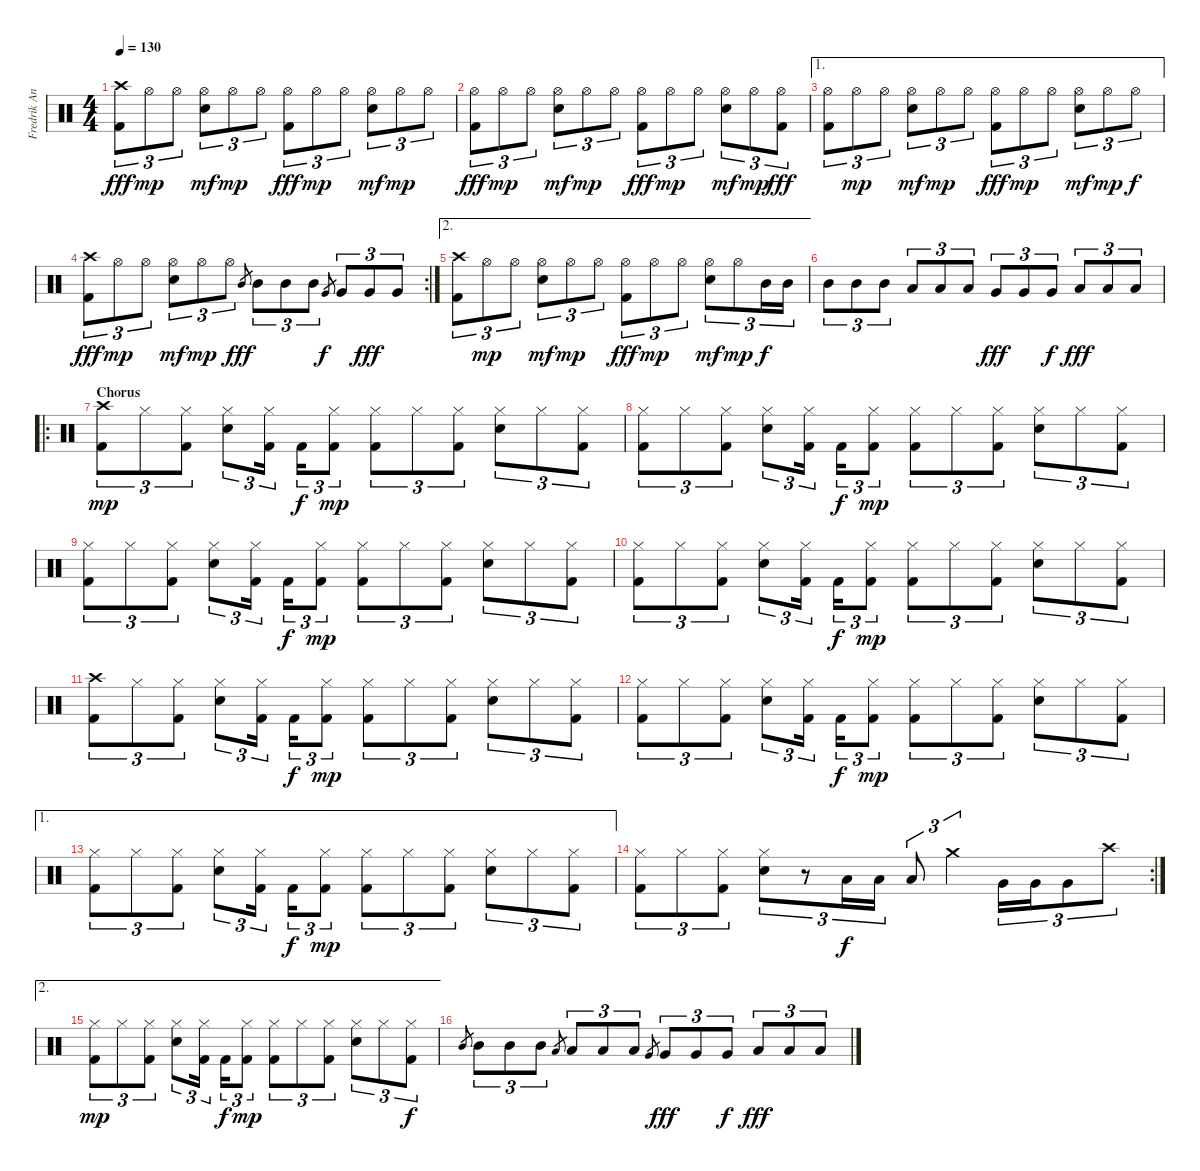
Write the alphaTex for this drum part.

\track ("Fredrik Andersson" "Fredrik An") {instrument percussion}
\staff {score}
\articulation defaults
\ts (4 4)
\tempo 130
\clef neutral
\ks c
("Crash high (hit)" "Kick (hit) 2").8{tu (3 2) dy fff} "Hi-Hat (open)".8{tu (3 2) dy mp} "Hi-Hat (open)".8{tu (3 2)} ("Hi-Hat (open)" "Snare (hit) 2").8{tu (3 2) dy mf} "Hi-Hat (open)".8{tu (3 2) dy mp} "Hi-Hat (open)".8{tu (3 2)} ("Hi-Hat (open)" "Kick (hit) 2").8{tu (3 2) dy fff} "Hi-Hat (open)".8{tu (3 2) dy mp} "Hi-Hat (open)".8{tu (3 2)} ("Hi-Hat (open)" "Snare (hit) 2").8{tu (3 2) dy mf} "Hi-Hat (open)".8{tu (3 2) dy mp} "Hi-Hat (open)".8{tu (3 2)} |
("Hi-Hat (open)" "Kick (hit) 2").8{tu (3 2) dy fff} "Hi-Hat (open)".8{tu (3 2) dy mp} "Hi-Hat (open)".8{tu (3 2)} ("Hi-Hat (open)" "Snare (hit) 2").8{tu (3 2) dy mf} "Hi-Hat (open)".8{tu (3 2) dy mp} "Hi-Hat (open)".8{tu (3 2)} ("Hi-Hat (open)" "Kick (hit) 2").8{tu (3 2) dy fff} "Hi-Hat (open)".8{tu (3 2) dy mp} "Hi-Hat (open)".8{tu (3 2)} ("Hi-Hat (open)" "Snare (hit) 2").8{tu (3 2) dy mf} "Hi-Hat (open)".8{tu (3 2) dy mp} ("Hi-Hat (open)" "Kick (hit) 2").8{tu (3 2) dy fff} |
\ae 1
("Hi-Hat (open)" "Kick (hit) 2").8{tu (3 2)} "Hi-Hat (open)".8{tu (3 2) dy mp} "Hi-Hat (open)".8{tu (3 2)} ("Hi-Hat (open)" "Snare (hit) 2").8{tu (3 2) dy mf} "Hi-Hat (open)".8{tu (3 2) dy mp} "Hi-Hat (open)".8{tu (3 2)} ("Hi-Hat (open)" "Kick (hit) 2").8{tu (3 2) dy fff} "Hi-Hat (open)".8{tu (3 2) dy mp} "Hi-Hat (open)".8{tu (3 2)} ("Hi-Hat (open)" "Snare (hit) 2").8{tu (3 2) dy mf} "Hi-Hat (open)".8{tu (3 2) dy mp} "Hi-Hat (open)".8{tu (3 2) dy f} |
\rc 2
("Crash high (hit)" "Kick (hit) 2").8{tu (3 2) dy fff} "Hi-Hat (open)".8{tu (3 2) dy mp} "Hi-Hat (open)".8{tu (3 2)} ("Hi-Hat (open)" "Snare (hit) 2").8{tu (3 2) dy mf} "Hi-Hat (open)".8{tu (3 2) dy mp} "Hi-Hat (open)".8{tu (3 2)} "Mid Tom (hit)".8{gr dy fff} "Mid Tom (hit)".8{tu (3 2)} "Mid Tom (hit)".8{tu (3 2)} "Mid Tom (hit)".8{tu (3 2)} "Very Low Tom (hit)".8{gr dy f} "Very Low Tom (hit)".8{tu (3 2)} "Very Low Tom (hit)".8{tu (3 2) dy fff} "Very Low Tom (hit)".8{tu (3 2)} |
\ae 2
("Crash high (hit)" "Kick (hit) 2").8{tu (3 2)} "Hi-Hat (open)".8{tu (3 2) dy mp} "Hi-Hat (open)".8{tu (3 2)} ("Hi-Hat (open)" "Snare (hit) 2").8{tu (3 2) dy mf} "Hi-Hat (open)".8{tu (3 2) dy mp} "Hi-Hat (open)".8{tu (3 2)} ("Hi-Hat (open)" "Kick (hit) 2").8{tu (3 2) dy fff} "Hi-Hat (open)".8{tu (3 2) dy mp} "Hi-Hat (open)".8{tu (3 2)} ("Hi-Hat (open)" "Snare (hit) 2").8{tu (3 2) dy mf} "Hi-Hat (open)".8{tu (3 2) dy mp} "Mid Tom (hit)".16{tu (3 2) dy f} "Mid Tom (hit)".16{tu (3 2)} |
"Mid Tom (hit)".8{tu (3 2)} "Mid Tom (hit)".8{tu (3 2)} "Mid Tom (hit)".8{tu (3 2)} "Low Tom (hit)".8{tu (3 2)} "Low Tom (hit)".8{tu (3 2)} "Low Tom (hit)".8{tu (3 2)} "Very Low Tom (hit)".8{tu (3 2) dy fff} "Very Low Tom (hit)".8{tu (3 2)} "Very Low Tom (hit)".8{tu (3 2) dy f} "Low Floor Tom (hit)".8{tu (3 2) dy fff} "Low Floor Tom (hit)".8{tu (3 2)} "Low Floor Tom (hit)".8{tu (3 2)} |
\ro
\section ("" "Chorus")
("Crash high (hit)" "Kick (hit) 2").8{tu (3 2) dy mp} "Hi-Hat (closed)".8{tu (3 2)} ("Hi-Hat (closed)" "Kick (hit) 2").8{tu (3 2)} ("Hi-Hat (closed)" "Snare (hit) 2").8{tu (3 2)} ("Hi-Hat (closed)" "Kick (hit) 2").16{tu (3 2)} "Kick (hit) 2".16{tu (3 2) dy f} ("Hi-Hat (closed)" "Kick (hit) 2").8{tu (3 2) dy mp} ("Hi-Hat (closed)" "Kick (hit) 2").8{tu (3 2)} "Hi-Hat (closed)".8{tu (3 2)} ("Hi-Hat (closed)" "Kick (hit) 2").8{tu (3 2)} ("Hi-Hat (closed)" "Snare (hit) 2").8{tu (3 2)} "Hi-Hat (closed)".8{tu (3 2)} ("Hi-Hat (closed)" "Kick (hit) 2").8{tu (3 2)} |
("Hi-Hat (closed)" "Kick (hit) 2").8{tu (3 2)} "Hi-Hat (closed)".8{tu (3 2)} ("Hi-Hat (closed)" "Kick (hit) 2").8{tu (3 2)} ("Hi-Hat (closed)" "Snare (hit) 2").8{tu (3 2)} ("Hi-Hat (closed)" "Kick (hit) 2").16{tu (3 2)} "Kick (hit) 2".16{tu (3 2) dy f} ("Hi-Hat (closed)" "Kick (hit) 2").8{tu (3 2) dy mp} ("Hi-Hat (closed)" "Kick (hit) 2").8{tu (3 2)} "Hi-Hat (closed)".8{tu (3 2)} ("Hi-Hat (closed)" "Kick (hit) 2").8{tu (3 2)} ("Hi-Hat (closed)" "Snare (hit) 2").8{tu (3 2)} "Hi-Hat (closed)".8{tu (3 2)} ("Hi-Hat (closed)" "Kick (hit) 2").8{tu (3 2)} |
("Hi-Hat (closed)" "Kick (hit) 2").8{tu (3 2)} "Hi-Hat (closed)".8{tu (3 2)} ("Hi-Hat (closed)" "Kick (hit) 2").8{tu (3 2)} ("Hi-Hat (closed)" "Snare (hit) 2").8{tu (3 2)} ("Hi-Hat (closed)" "Kick (hit) 2").16{tu (3 2)} "Kick (hit) 2".16{tu (3 2) dy f} ("Hi-Hat (closed)" "Kick (hit) 2").8{tu (3 2) dy mp} ("Hi-Hat (closed)" "Kick (hit) 2").8{tu (3 2)} "Hi-Hat (closed)".8{tu (3 2)} ("Hi-Hat (closed)" "Kick (hit) 2").8{tu (3 2)} ("Hi-Hat (closed)" "Snare (hit) 2").8{tu (3 2)} "Hi-Hat (closed)".8{tu (3 2)} ("Hi-Hat (closed)" "Kick (hit) 2").8{tu (3 2)} |
("Hi-Hat (closed)" "Kick (hit) 2").8{tu (3 2)} "Hi-Hat (closed)".8{tu (3 2)} ("Hi-Hat (closed)" "Kick (hit) 2").8{tu (3 2)} ("Hi-Hat (closed)" "Snare (hit) 2").8{tu (3 2)} ("Hi-Hat (closed)" "Kick (hit) 2").16{tu (3 2)} "Kick (hit) 2".16{tu (3 2) dy f} ("Hi-Hat (closed)" "Kick (hit) 2").8{tu (3 2) dy mp} ("Hi-Hat (closed)" "Kick (hit) 2").8{tu (3 2)} "Hi-Hat (closed)".8{tu (3 2)} ("Hi-Hat (closed)" "Kick (hit) 2").8{tu (3 2)} ("Hi-Hat (closed)" "Snare (hit) 2").8{tu (3 2)} "Hi-Hat (closed)".8{tu (3 2)} ("Hi-Hat (closed)" "Kick (hit) 2").8{tu (3 2)} |
("Crash high (hit)" "Kick (hit) 2").8{tu (3 2)} "Hi-Hat (closed)".8{tu (3 2)} ("Hi-Hat (closed)" "Kick (hit) 2").8{tu (3 2)} ("Hi-Hat (closed)" "Snare (hit) 2").8{tu (3 2)} ("Hi-Hat (closed)" "Kick (hit) 2").16{tu (3 2)} "Kick (hit) 2".16{tu (3 2) dy f} ("Hi-Hat (closed)" "Kick (hit) 2").8{tu (3 2) dy mp} ("Hi-Hat (closed)" "Kick (hit) 2").8{tu (3 2)} "Hi-Hat (closed)".8{tu (3 2)} ("Hi-Hat (closed)" "Kick (hit) 2").8{tu (3 2)} ("Hi-Hat (closed)" "Snare (hit) 2").8{tu (3 2)} "Hi-Hat (closed)".8{tu (3 2)} ("Hi-Hat (closed)" "Kick (hit) 2").8{tu (3 2)} |
("Hi-Hat (closed)" "Kick (hit) 2").8{tu (3 2)} "Hi-Hat (closed)".8{tu (3 2)} ("Hi-Hat (closed)" "Kick (hit) 2").8{tu (3 2)} ("Hi-Hat (closed)" "Snare (hit) 2").8{tu (3 2)} ("Hi-Hat (closed)" "Kick (hit) 2").16{tu (3 2)} "Kick (hit) 2".16{tu (3 2) dy f} ("Hi-Hat (closed)" "Kick (hit) 2").8{tu (3 2) dy mp} ("Hi-Hat (closed)" "Kick (hit) 2").8{tu (3 2)} "Hi-Hat (closed)".8{tu (3 2)} ("Hi-Hat (closed)" "Kick (hit) 2").8{tu (3 2)} ("Hi-Hat (closed)" "Snare (hit) 2").8{tu (3 2)} "Hi-Hat (closed)".8{tu (3 2)} ("Hi-Hat (closed)" "Kick (hit) 2").8{tu (3 2)} |
\ae 1
("Hi-Hat (closed)" "Kick (hit) 2").8{tu (3 2)} "Hi-Hat (closed)".8{tu (3 2)} ("Hi-Hat (closed)" "Kick (hit) 2").8{tu (3 2)} ("Hi-Hat (closed)" "Snare (hit) 2").8{tu (3 2)} ("Hi-Hat (closed)" "Kick (hit) 2").16{tu (3 2)} "Kick (hit) 2".16{tu (3 2) dy f} ("Hi-Hat (closed)" "Kick (hit) 2").8{tu (3 2) dy mp} ("Hi-Hat (closed)" "Kick (hit) 2").8{tu (3 2)} "Hi-Hat (closed)".8{tu (3 2)} ("Hi-Hat (closed)" "Kick (hit) 2").8{tu (3 2)} ("Hi-Hat (closed)" "Snare (hit) 2").8{tu (3 2)} "Hi-Hat (closed)".8{tu (3 2)} ("Hi-Hat (closed)" "Kick (hit) 2").8{tu (3 2)} |
\rc 2
("Hi-Hat (closed)" "Kick (hit) 2").8{tu (3 2)} "Hi-Hat (closed)".8{tu (3 2)} ("Hi-Hat (closed)" "Kick (hit) 2").8{tu (3 2)} ("Hi-Hat (closed)" "Snare (hit) 2").8{tu (3 2)} r.8{tu (3 2)} "Low Tom (hit)".16{tu (3 2) dy f} "Low Tom (hit)".16{tu (3 2)} "Low Tom (hit)".8{tu (3 2)} "Crash medium (hit)".4{tu (3 2)} "Very Low Tom (hit)".16{tu (3 2)} "Very Low Tom (hit)".16{tu (3 2)} "Very Low Tom (hit)".8{tu (3 2)} "Crash high (hit)".8{tu (3 2)} |
\ae 2
("Hi-Hat (closed)" "Kick (hit) 2").8{tu (3 2) dy mp} "Hi-Hat (closed)".8{tu (3 2)} ("Hi-Hat (closed)" "Kick (hit) 2").8{tu (3 2)} ("Hi-Hat (closed)" "Snare (hit) 2").8{tu (3 2)} ("Hi-Hat (closed)" "Kick (hit) 2").16{tu (3 2)} "Kick (hit) 2".16{tu (3 2) dy f} ("Hi-Hat (closed)" "Kick (hit) 2").8{tu (3 2) dy mp} ("Hi-Hat (closed)" "Kick (hit) 2").8{tu (3 2)} "Hi-Hat (closed)".8{tu (3 2)} ("Hi-Hat (closed)" "Kick (hit) 2").8{tu (3 2)} ("Hi-Hat (closed)" "Snare (hit) 2").8{tu (3 2)} "Hi-Hat (closed)".8{tu (3 2)} ("Hi-Hat (closed)" "Kick (hit) 2").8{tu (3 2) dy f} |
"Mid Tom (hit)".8{gr} "Mid Tom (hit)".8{tu (3 2)} "Mid Tom (hit)".8{tu (3 2)} "Mid Tom (hit)".8{tu (3 2)} "Low Tom (hit)".8{gr} "Low Tom (hit)".8{tu (3 2)} "Low Tom (hit)".8{tu (3 2)} "Low Tom (hit)".8{tu (3 2)} "Very Low Tom (hit)".8{gr} "Very Low Tom (hit)".8{tu (3 2) dy fff} "Very Low Tom (hit)".8{tu (3 2)} "Very Low Tom (hit)".8{tu (3 2) dy f} "Low Floor Tom (hit)".8{tu (3 2) dy fff} "Low Floor Tom (hit)".8{tu (3 2)} "Low Floor Tom (hit)".8{tu (3 2)}
